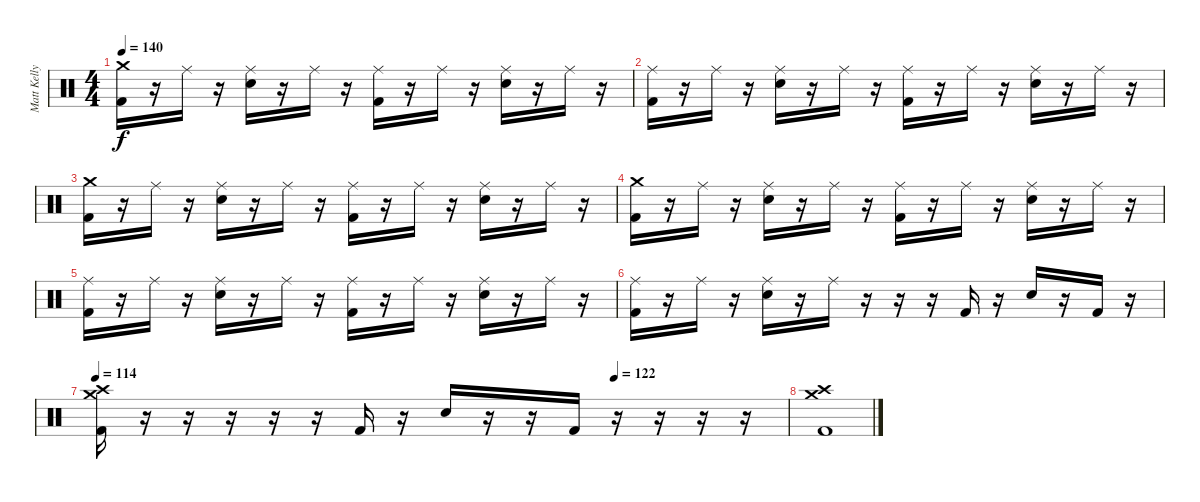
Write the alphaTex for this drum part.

\track ("Matt Kelly" "Matt Kelly") {instrument percussion}
\staff {score}
\articulation defaults
\ts (4 4)
\tempo 140
\clef neutral
\ks c
("Crash medium (hit)" "Kick (hit) 2").16{dy f} r.16 "Ride (middle)".16 r.16 ("Ride (middle)" "Snare (hit) 2").16 r.16 "Ride (middle)".16 r.16 ("Ride (middle)" "Kick (hit) 2").16 r.16 "Ride (middle)".16 r.16 ("Ride (middle)" "Snare (hit) 2").16 r.16 "Ride (middle)".16 r.16 |
("Ride (middle)" "Kick (hit) 2").16 r.16 "Ride (middle)".16 r.16 ("Ride (middle)" "Snare (hit) 2").16 r.16 "Ride (middle)".16 r.16 ("Ride (middle)" "Kick (hit) 2").16 r.16 "Ride (middle)".16 r.16 ("Ride (middle)" "Snare (hit) 2").16 r.16 "Ride (middle)".16 r.16 |
("Crash medium (hit)" "Kick (hit) 2").16 r.16 "Ride (middle)".16 r.16 ("Ride (middle)" "Snare (hit) 2").16 r.16 "Ride (middle)".16 r.16 ("Ride (middle)" "Kick (hit) 2").16 r.16 "Ride (middle)".16 r.16 ("Ride (middle)" "Snare (hit) 2").16 r.16 "Ride (middle)".16 r.16 |
("Crash medium (hit)" "Kick (hit) 2").16 r.16 "Ride (middle)".16 r.16 ("Ride (middle)" "Snare (hit) 2").16 r.16 "Ride (middle)".16 r.16 ("Ride (middle)" "Kick (hit) 2").16 r.16 "Ride (middle)".16 r.16 ("Ride (middle)" "Snare (hit) 2").16 r.16 "Ride (middle)".16 r.16 |
("Ride (middle)" "Kick (hit) 2").16 r.16 "Ride (middle)".16 r.16 ("Ride (middle)" "Snare (hit) 2").16 r.16 "Ride (middle)".16 r.16 ("Ride (middle)" "Kick (hit) 2").16 r.16 "Ride (middle)".16 r.16 ("Ride (middle)" "Snare (hit) 2").16 r.16 "Ride (middle)".16 r.16 |
("Ride (middle)" "Kick (hit) 2").16 r.16 "Ride (middle)".16 r.16 ("Ride (middle)" "Snare (hit) 2").16 r.16 "Ride (middle)".16 r.16 r.16 r.16 "Kick (hit) 2".16 r.16 "Snare (hit) 2".16 r.16 "Kick (hit) 2".16 r.16 |
\tempo 114
\tempo (122 0.75)
("Crash medium (hit)" "Crash high (hit)" "Kick (hit) 2").16 r.16 r.16 r.16 r.16 r.16 "Kick (hit) 2".16 r.16 "Snare (hit) 2".16 r.16 r.16 "Kick (hit) 2".16 r.16 r.16 r.16 r.16 |
("Crash medium (hit)" "Crash high (hit)" "Kick (hit) 2").1
